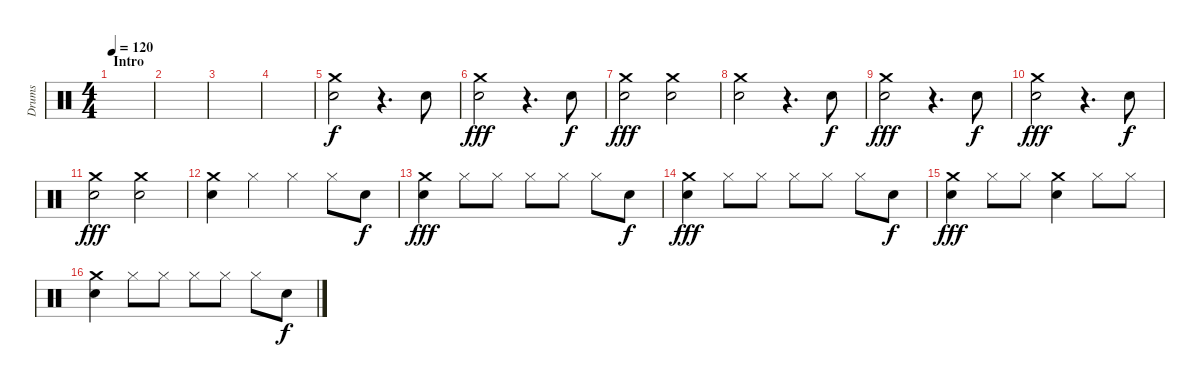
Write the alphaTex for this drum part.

\track ("Drums" "Drums") {instrument percussion}
\staff {score}
\articulation defaults
\ts (4 4)
\section ("" "Intro")
\tempo 120
\clef neutral
\ks c
|
|
|
|
("Electric Snare (hit)" "Crash medium (hit)").2 r.4{d} "Electric Snare (hit)".8{dy f} |
("Electric Snare (hit)" "Crash medium (hit)").2{dy fff} r.4{d} "Electric Snare (hit)".8{dy f} |
("Electric Snare (hit)" "Crash medium (hit)").2{dy fff} ("Electric Snare (hit)" "Crash medium (hit)").2 |
("Electric Snare (hit)" "Crash medium (hit)").2 r.4{d} "Electric Snare (hit)".8{dy f} |
("Electric Snare (hit)" "Crash medium (hit)").2{dy fff} r.4{d} "Electric Snare (hit)".8{dy f} |
("Electric Snare (hit)" "Crash medium (hit)").2{dy fff} r.4{d} "Electric Snare (hit)".8{dy f} |
("Electric Snare (hit)" "Crash medium (hit)").2{dy fff} ("Electric Snare (hit)" "Crash medium (hit)").2 |
("Electric Snare (hit)" "Crash medium (hit)").4 "Hi-Hat (closed)".4 "Hi-Hat (closed)".4 "Hi-Hat (closed)".8 "Electric Snare (hit)".8{dy f} |
("Electric Snare (hit)" "Crash medium (hit)").4{dy fff} "Hi-Hat (closed)".8 "Hi-Hat (closed)".8 "Hi-Hat (closed)".8 "Hi-Hat (closed)".8 "Hi-Hat (closed)".8 "Electric Snare (hit)".8{dy f} |
("Electric Snare (hit)" "Crash medium (hit)").4{dy fff} "Hi-Hat (closed)".8 "Hi-Hat (closed)".8 "Hi-Hat (closed)".8 "Hi-Hat (closed)".8 "Hi-Hat (closed)".8 "Electric Snare (hit)".8{dy f} |
("Crash medium (hit)" "Electric Snare (hit)").4{dy fff} "Hi-Hat (closed)".8 "Hi-Hat (closed)".8 ("Crash medium (hit)" "Electric Snare (hit)").4 "Hi-Hat (closed)".8 "Hi-Hat (closed)".8 |
("Electric Snare (hit)" "Crash medium (hit)").4 "Hi-Hat (closed)".8 "Hi-Hat (closed)".8 "Hi-Hat (closed)".8 "Hi-Hat (closed)".8 "Hi-Hat (closed)".8 "Electric Snare (hit)".8{dy f}
